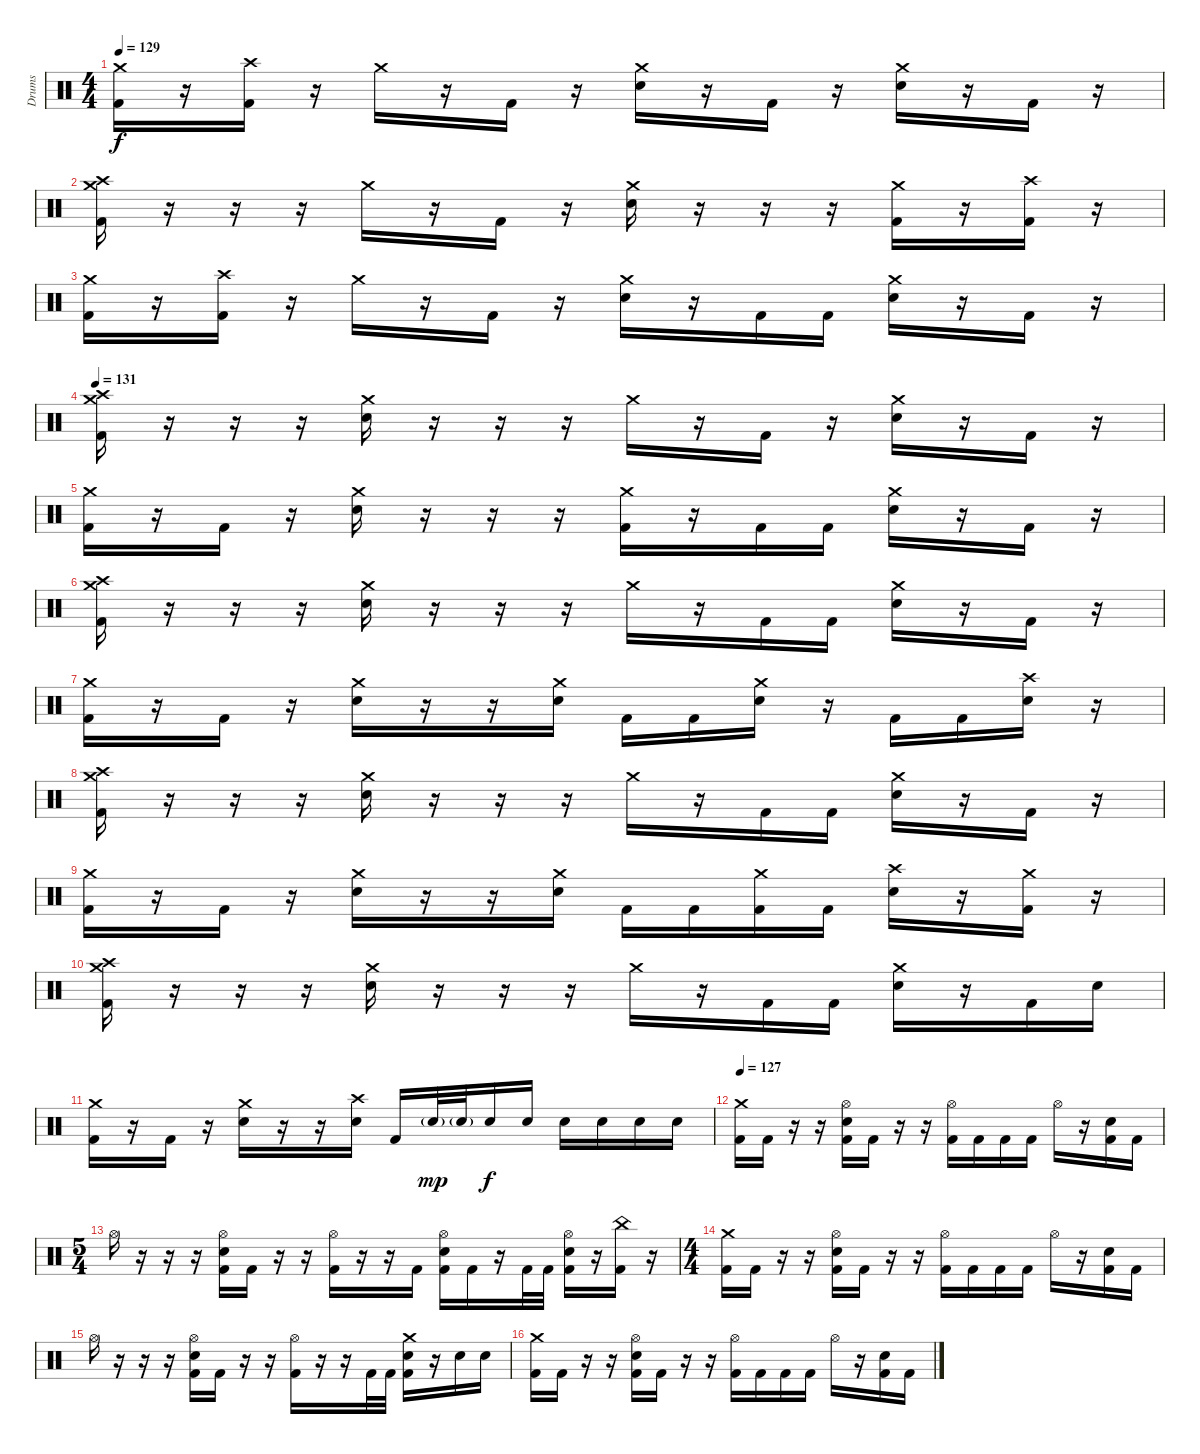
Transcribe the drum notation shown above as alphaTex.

\track ("Drums" "Drums") {instrument percussion}
\staff {score}
\articulation defaults
\ts (4 4)
\tempo 129
\clef neutral
\ks c
("Crash medium (hit)" "Kick (hit) 2").16{dy f} r.16 ("Crash high (hit)" "Kick (hit) 2").16 r.16 "Crash medium (hit)".16 r.16 "Kick (hit) 2".16 r.16 ("Crash medium (hit)" "Electric Snare (hit)").16 r.16 "Kick (hit) 2".16 r.16 ("Crash medium (hit)" "Electric Snare (hit)").16 r.16 "Kick (hit) 2".16 r.16 |
("Crash medium (hit)" "Crash high (hit)" "Kick (hit) 2").16 r.16 r.16 r.16 "Crash medium (hit)".16 r.16 "Kick (hit) 2".16 r.16 ("Crash medium (hit)" "Electric Snare (hit)").16 r.16 r.16 r.16 ("Crash medium (hit)" "Kick (hit) 2").16 r.16 ("Crash high (hit)" "Kick (hit) 2").16 r.16 |
("Crash medium (hit)" "Kick (hit) 2").16 r.16 ("Crash high (hit)" "Kick (hit) 2").16 r.16 "Crash medium (hit)".16 r.16 "Kick (hit) 2".16 r.16 ("Crash medium (hit)" "Electric Snare (hit)").16 r.16 "Kick (hit) 2".16 "Kick (hit) 2".16 ("Crash medium (hit)" "Electric Snare (hit)").16 r.16 "Kick (hit) 2".16 r.16 |
\tempo 131
("Crash medium (hit)" "Crash high (hit)" "Kick (hit) 2").16 r.16 r.16 r.16 ("Crash medium (hit)" "Electric Snare (hit)").16 r.16 r.16 r.16 "Crash medium (hit)".16 r.16 "Kick (hit) 2".16 r.16 ("Crash medium (hit)" "Electric Snare (hit)").16 r.16 "Kick (hit) 2".16 r.16 |
("Crash medium (hit)" "Kick (hit) 2").16 r.16 "Kick (hit) 2".16 r.16 ("Crash medium (hit)" "Electric Snare (hit)").16 r.16 r.16 r.16 ("Crash medium (hit)" "Kick (hit) 2").16 r.16 "Kick (hit) 2".16 "Kick (hit) 2".16 ("Crash medium (hit)" "Electric Snare (hit)").16 r.16 "Kick (hit) 2".16 r.16 |
("Crash medium (hit)" "Crash high (hit)" "Kick (hit) 2").16 r.16 r.16 r.16 ("Crash medium (hit)" "Electric Snare (hit)").16 r.16 r.16 r.16 "Crash medium (hit)".16 r.16 "Kick (hit) 2".16 "Kick (hit) 2".16 ("Crash medium (hit)" "Electric Snare (hit)").16 r.16 "Kick (hit) 2".16 r.16 |
("Crash medium (hit)" "Kick (hit) 2").16 r.16 "Kick (hit) 2".16 r.16 ("Crash medium (hit)" "Electric Snare (hit)").16 r.16 r.16 ("Crash medium (hit)" "Electric Snare (hit)").16 "Kick (hit) 2".16 "Kick (hit) 2".16 ("Crash medium (hit)" "Electric Snare (hit)").16 r.16 "Kick (hit) 2".16 "Kick (hit) 2".16 ("Crash high (hit)" "Electric Snare (hit)").16 r.16 |
("Crash medium (hit)" "Crash high (hit)" "Kick (hit) 2").16 r.16 r.16 r.16 ("Crash medium (hit)" "Electric Snare (hit)").16 r.16 r.16 r.16 "Crash medium (hit)".16 r.16 "Kick (hit) 2".16 "Kick (hit) 2".16 ("Crash medium (hit)" "Electric Snare (hit)").16 r.16 "Kick (hit) 2".16 r.16 |
("Crash medium (hit)" "Kick (hit) 2").16 r.16 "Kick (hit) 2".16 r.16 ("Crash medium (hit)" "Electric Snare (hit)").16 r.16 r.16 ("Crash medium (hit)" "Electric Snare (hit)").16 "Kick (hit) 2".16 "Kick (hit) 2".16 ("Crash medium (hit)" "Kick (hit) 2").16 "Kick (hit) 2".16 ("Crash high (hit)" "Electric Snare (hit)").16 r.16 ("Crash medium (hit)" "Kick (hit) 2").16 r.16 |
("Crash medium (hit)" "Crash high (hit)" "Kick (hit) 2").16 r.16 r.16 r.16 ("Crash medium (hit)" "Electric Snare (hit)").16 r.16 r.16 r.16 "Crash medium (hit)".16 r.16 "Kick (hit) 2".16 "Kick (hit) 2".16 ("Crash medium (hit)" "Electric Snare (hit)").16 r.16 "Kick (hit) 2".16 "Electric Snare (hit)".16 |
("Crash medium (hit)" "Kick (hit) 2").16 r.16 "Kick (hit) 2".16 r.16 ("Crash medium (hit)" "Electric Snare (hit)").16 r.16 r.16 ("Crash high (hit)" "Electric Snare (hit)").16 "Kick (hit) 2".16 "Electric Snare (hit)"{g}.32{dy mp} "Electric Snare (hit)"{g}.32 "Electric Snare (hit)".16{dy f} "Electric Snare (hit)".16 "Electric Snare (hit)".16 "Electric Snare (hit)".16 "Electric Snare (hit)".16 "Electric Snare (hit)".16 |
\section ("" "")
\tempo 127
("Crash medium (hit)" "Kick (hit) 2").16 "Kick (hit) 2".16 r.16 r.16 ("Hi-Hat (open)" "Electric Snare (hit)" "Kick (hit) 2").16 "Kick (hit) 2".16 r.16 r.16 ("Hi-Hat (open)" "Kick (hit) 2").16 "Kick (hit) 2".16 "Kick (hit) 2".16 "Kick (hit) 2".16 "Hi-Hat (open)".16 r.16 ("Electric Snare (hit)" "Kick (hit) 2").16 "Kick (hit) 2".16 |
\ts (5 4)
"Hi-Hat (open)".16 r.16 r.16 r.16 ("Hi-Hat (open)" "Electric Snare (hit)" "Kick (hit) 2").16 "Kick (hit) 2".16 r.16 r.16 ("Hi-Hat (open)" "Kick (hit) 2").16 r.16 r.16 "Kick (hit) 2".16 ("Hi-Hat (open)" "Electric Snare (hit)" "Kick (hit) 2").16 "Kick (hit) 2".16 r.16 "Kick (hit) 2".32 "Kick (hit) 2".32 ("Hi-Hat (open)" "Electric Snare (hit)" "Kick (hit) 2").16 r.16 ("China (hit)" "Kick (hit) 2").16 r.16 |
\ts (4 4)
("Crash medium (hit)" "Kick (hit) 2").16 "Kick (hit) 2".16 r.16 r.16 ("Hi-Hat (open)" "Electric Snare (hit)" "Kick (hit) 2").16 "Kick (hit) 2".16 r.16 r.16 ("Hi-Hat (open)" "Kick (hit) 2").16 "Kick (hit) 2".16 "Kick (hit) 2".16 "Kick (hit) 2".16 "Hi-Hat (open)".16 r.16 ("Electric Snare (hit)" "Kick (hit) 2").16 "Kick (hit) 2".16 |
"Hi-Hat (open)".16 r.16 r.16 r.16 ("Hi-Hat (open)" "Electric Snare (hit)" "Kick (hit) 2").16 "Kick (hit) 2".16 r.16 r.16 ("Hi-Hat (open)" "Kick (hit) 2").16 r.16 r.16 "Kick (hit) 2".32 "Kick (hit) 2".32 ("Crash medium (hit)" "Electric Snare (hit)" "Kick (hit) 2").16 r.16 "Electric Snare (hit)".16 "Electric Snare (hit)".16 |
("Crash medium (hit)" "Kick (hit) 2").16 "Kick (hit) 2".16 r.16 r.16 ("Hi-Hat (open)" "Electric Snare (hit)" "Kick (hit) 2").16 "Kick (hit) 2".16 r.16 r.16 ("Hi-Hat (open)" "Kick (hit) 2").16 "Kick (hit) 2".16 "Kick (hit) 2".16 "Kick (hit) 2".16 "Hi-Hat (open)".16 r.16 ("Electric Snare (hit)" "Kick (hit) 2").16 "Kick (hit) 2".16
